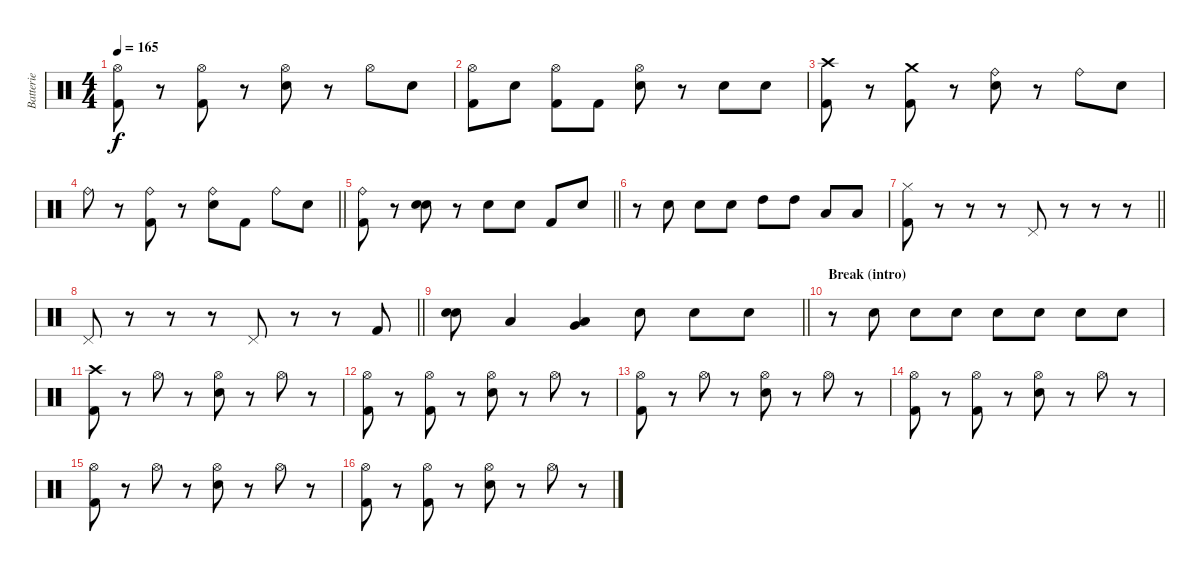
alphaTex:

\track ("Batterie" "Batterie") {instrument percussion}
\staff {score}
\articulation defaults
\ts (4 4)
\tempo 165
\clef neutral
\ks c
("Hi-Hat (open)" "Kick (hit) 2").8{dy f} r.8 ("Hi-Hat (open)" "Kick (hit) 2").8 r.8 ("Hi-Hat (open)" "Electric Snare (hit)").8 r.8 "Hi-Hat (open)".8 "Electric Snare (hit)".8 |
("Hi-Hat (open)" "Kick (hit) 2").8 "Electric Snare (hit)".8 ("Hi-Hat (open)" "Kick (hit) 2").8 "Kick (hit) 2".8 ("Hi-Hat (open)" "Electric Snare (hit)").8 r.8 "Electric Snare (hit)".8 "Electric Snare (hit)".8 |
("Crash high (hit)" "Kick (hit) 2").8 r.8 ("Crash medium (hit)" "Kick (hit) 2").8 r.8 ("Ride (bell)" "Electric Snare (hit)").8 r.8 "Ride (bell)".8 "Electric Snare (hit)".8 |
\barLineRight lightlight "Ride (bell)".8
r.8 ("Ride (bell)" "Kick (hit) 2").8 r.8 ("Ride (bell)" "Electric Snare (hit)").8 "Kick (hit) 2".8 "Ride (bell)".8 "Electric Snare (hit)".8 |
\barLineRight lightlight
("Ride (bell)" "Kick (hit) 2").8 r.8 ("Electric Snare (hit)" "Electric Snare (hit)").8{bu 120} r.8 "Electric Snare (hit)".8 "Electric Snare (hit)".8 "Kick (hit) 2".8 "Electric Snare (hit)".8 |
r.8 "Electric Snare (hit)".8 "Electric Snare (hit)".8 "Electric Snare (hit)".8 "High Tom (hit)".8 "High Tom (hit)".8 "Low Tom (hit)".8 "Low Tom (hit)".8 |
\barLineRight lightlight
("Hi-Hat (closed)" "Kick (hit) 2").8 r.8 r.8 r.8 "Pedal Hi-Hat (hit)".8 r.8 r.8 r.8 |
\barLineRight lightlight "Pedal Hi-Hat (hit)".8
r.8 r.8 r.8 "Pedal Hi-Hat (hit)".8 r.8 r.8 "Kick (hit) 2".8 |
\barLineRight lightlight
("Electric Snare (hit)" "Electric Snare (hit)").8{bu 120} "Low Tom (hit)".4 ("Low Tom (hit)" "Very Low Tom (hit)").4{bu 120} "Electric Snare (hit)".8 "Electric Snare (hit)".8 "Electric Snare (hit)".8 |
\section ("" "Break (intro)")
r.8 "Electric Snare (hit)".8 "Electric Snare (hit)".8 "Electric Snare (hit)".8 "Electric Snare (hit)".8 "Electric Snare (hit)".8 "Electric Snare (hit)".8 "Electric Snare (hit)".8 |
("Crash high (hit)" "Kick (hit) 2").8 r.8 "Hi-Hat (open)".8 r.8 ("Hi-Hat (open)" "Electric Snare (hit)").8 r.8 "Hi-Hat (open)".8 r.8 |
("Hi-Hat (open)" "Kick (hit) 2").8 r.8 ("Hi-Hat (open)" "Kick (hit) 2").8 r.8 ("Hi-Hat (open)" "Electric Snare (hit)").8 r.8 "Hi-Hat (open)".8 r.8 |
("Hi-Hat (open)" "Kick (hit) 2").8 r.8 "Hi-Hat (open)".8 r.8 ("Hi-Hat (open)" "Electric Snare (hit)").8 r.8 "Hi-Hat (open)".8 r.8 |
("Hi-Hat (open)" "Kick (hit) 2").8 r.8 ("Hi-Hat (open)" "Kick (hit) 2").8 r.8 ("Hi-Hat (open)" "Electric Snare (hit)").8 r.8 "Hi-Hat (open)".8 r.8 |
("Hi-Hat (open)" "Kick (hit) 2").8 r.8 "Hi-Hat (open)".8 r.8 ("Hi-Hat (open)" "Electric Snare (hit)").8 r.8 "Hi-Hat (open)".8 r.8 |
("Hi-Hat (open)" "Kick (hit) 2").8 r.8 ("Hi-Hat (open)" "Kick (hit) 2").8 r.8 ("Hi-Hat (open)" "Electric Snare (hit)").8 r.8 "Hi-Hat (open)".8 r.8
